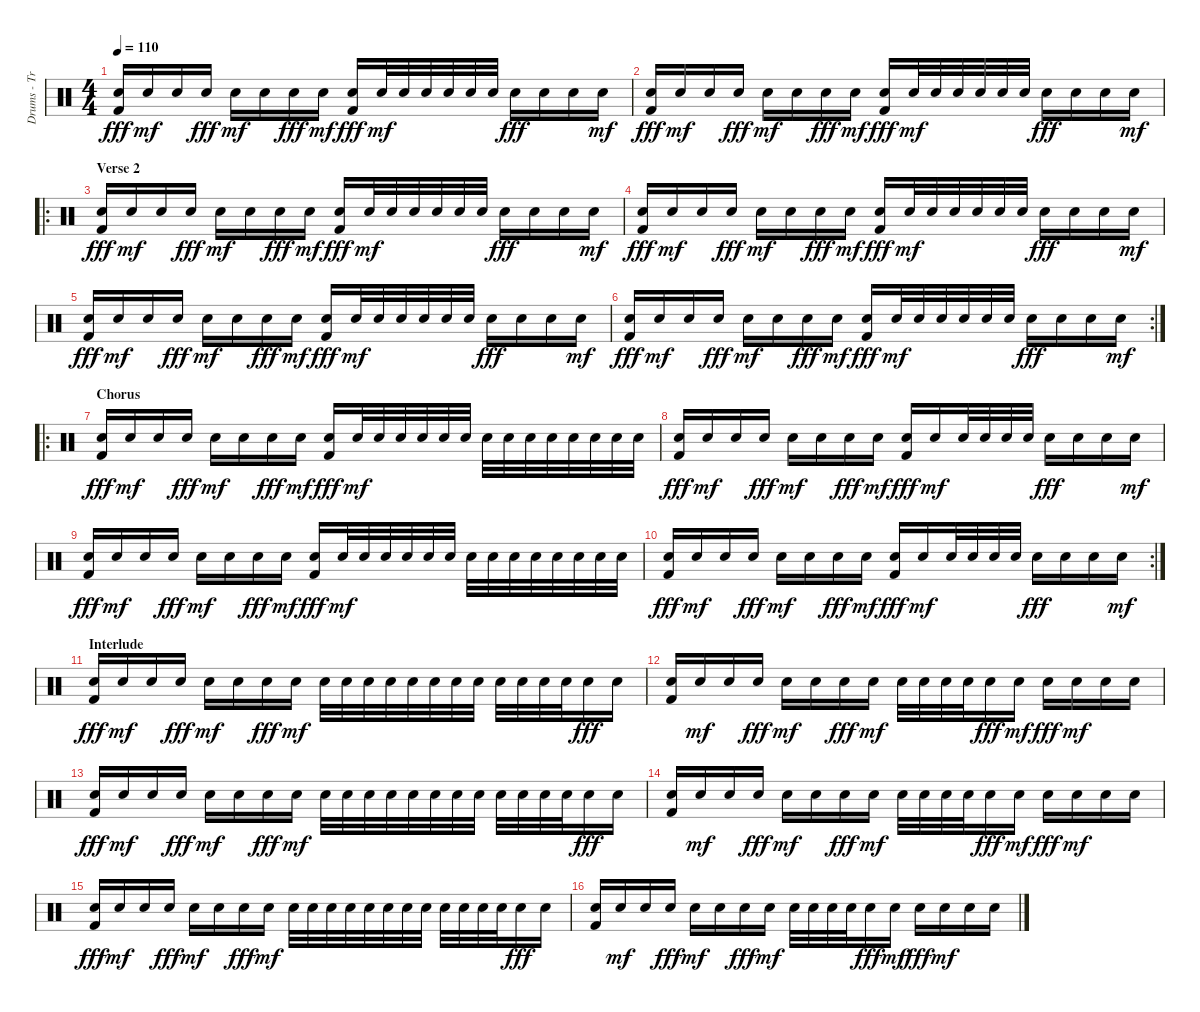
\track ("Drums - Travis" "Drums - Tr") {instrument percussion}
\staff {score}
\articulation defaults
\ts (4 4)
\tempo 110
\clef neutral
\ks c
("Electric Snare (hit)" "Kick (hit) 2").16{dy fff} "Electric Snare (hit)".16{dy mf} "Electric Snare (hit)".16 "Electric Snare (hit)".16{dy fff} "Electric Snare (hit)".16{dy mf} "Electric Snare (hit)".16 "Electric Snare (hit)".16{dy fff} "Electric Snare (hit)".16{dy mf} ("Electric Snare (hit)" "Kick (hit) 2").16{dy fff} "Electric Snare (hit)".32{dy mf} "Electric Snare (hit)".32 "Electric Snare (hit)".32 "Electric Snare (hit)".32 "Electric Snare (hit)".32 "Electric Snare (hit)".32 "Electric Snare (hit)".16{dy fff} "Electric Snare (hit)".16 "Electric Snare (hit)".16 "Electric Snare (hit)".16{dy mf} |
("Electric Snare (hit)" "Kick (hit) 2").16{dy fff} "Electric Snare (hit)".16{dy mf} "Electric Snare (hit)".16 "Electric Snare (hit)".16{dy fff} "Electric Snare (hit)".16{dy mf} "Electric Snare (hit)".16 "Electric Snare (hit)".16{dy fff} "Electric Snare (hit)".16{dy mf} ("Electric Snare (hit)" "Kick (hit) 2").16{dy fff} "Electric Snare (hit)".32{dy mf} "Electric Snare (hit)".32 "Electric Snare (hit)".32 "Electric Snare (hit)".32 "Electric Snare (hit)".32 "Electric Snare (hit)".32 "Electric Snare (hit)".16{dy fff} "Electric Snare (hit)".16 "Electric Snare (hit)".16 "Electric Snare (hit)".16{dy mf} |
\ro
\section ("" "Verse 2")
("Electric Snare (hit)" "Kick (hit) 2").16{dy fff} "Electric Snare (hit)".16{dy mf} "Electric Snare (hit)".16 "Electric Snare (hit)".16{dy fff} "Electric Snare (hit)".16{dy mf} "Electric Snare (hit)".16 "Electric Snare (hit)".16{dy fff} "Electric Snare (hit)".16{dy mf} ("Electric Snare (hit)" "Kick (hit) 2").16{dy fff} "Electric Snare (hit)".32{dy mf} "Electric Snare (hit)".32 "Electric Snare (hit)".32 "Electric Snare (hit)".32 "Electric Snare (hit)".32 "Electric Snare (hit)".32 "Electric Snare (hit)".16{dy fff} "Electric Snare (hit)".16 "Electric Snare (hit)".16 "Electric Snare (hit)".16{dy mf} |
("Electric Snare (hit)" "Kick (hit) 2").16{dy fff} "Electric Snare (hit)".16{dy mf} "Electric Snare (hit)".16 "Electric Snare (hit)".16{dy fff} "Electric Snare (hit)".16{dy mf} "Electric Snare (hit)".16 "Electric Snare (hit)".16{dy fff} "Electric Snare (hit)".16{dy mf} ("Electric Snare (hit)" "Kick (hit) 2").16{dy fff} "Electric Snare (hit)".32{dy mf} "Electric Snare (hit)".32 "Electric Snare (hit)".32 "Electric Snare (hit)".32 "Electric Snare (hit)".32 "Electric Snare (hit)".32 "Electric Snare (hit)".16{dy fff} "Electric Snare (hit)".16 "Electric Snare (hit)".16 "Electric Snare (hit)".16{dy mf} |
("Electric Snare (hit)" "Kick (hit) 2").16{dy fff} "Electric Snare (hit)".16{dy mf} "Electric Snare (hit)".16 "Electric Snare (hit)".16{dy fff} "Electric Snare (hit)".16{dy mf} "Electric Snare (hit)".16 "Electric Snare (hit)".16{dy fff} "Electric Snare (hit)".16{dy mf} ("Electric Snare (hit)" "Kick (hit) 2").16{dy fff} "Electric Snare (hit)".32{dy mf} "Electric Snare (hit)".32 "Electric Snare (hit)".32 "Electric Snare (hit)".32 "Electric Snare (hit)".32 "Electric Snare (hit)".32 "Electric Snare (hit)".16{dy fff} "Electric Snare (hit)".16 "Electric Snare (hit)".16 "Electric Snare (hit)".16{dy mf} |
\rc 2
("Electric Snare (hit)" "Kick (hit) 2").16{dy fff} "Electric Snare (hit)".16{dy mf} "Electric Snare (hit)".16 "Electric Snare (hit)".16{dy fff} "Electric Snare (hit)".16{dy mf} "Electric Snare (hit)".16 "Electric Snare (hit)".16{dy fff} "Electric Snare (hit)".16{dy mf} ("Electric Snare (hit)" "Kick (hit) 2").16{dy fff} "Electric Snare (hit)".32{dy mf} "Electric Snare (hit)".32 "Electric Snare (hit)".32 "Electric Snare (hit)".32 "Electric Snare (hit)".32 "Electric Snare (hit)".32 "Electric Snare (hit)".16{dy fff} "Electric Snare (hit)".16 "Electric Snare (hit)".16 "Electric Snare (hit)".16{dy mf} |
\ro
\section ("" "Chorus")
("Electric Snare (hit)" "Kick (hit) 2").16{dy fff} "Electric Snare (hit)".16{dy mf} "Electric Snare (hit)".16 "Electric Snare (hit)".16{dy fff} "Electric Snare (hit)".16{dy mf} "Electric Snare (hit)".16 "Electric Snare (hit)".16{dy fff} "Electric Snare (hit)".16{dy mf} ("Electric Snare (hit)" "Kick (hit) 2").16{dy fff} "Electric Snare (hit)".32{dy mf} "Electric Snare (hit)".32 "Electric Snare (hit)".32 "Electric Snare (hit)".32 "Electric Snare (hit)".32 "Electric Snare (hit)".32 "Electric Snare (hit)".32 "Electric Snare (hit)".32 "Electric Snare (hit)".32 "Electric Snare (hit)".32 "Electric Snare (hit)".32 "Electric Snare (hit)".32 "Electric Snare (hit)".32 "Electric Snare (hit)".32 |
("Electric Snare (hit)" "Kick (hit) 2").16{dy fff} "Electric Snare (hit)".16{dy mf} "Electric Snare (hit)".16 "Electric Snare (hit)".16{dy fff} "Electric Snare (hit)".16{dy mf} "Electric Snare (hit)".16 "Electric Snare (hit)".16{dy fff} "Electric Snare (hit)".16{dy mf} ("Electric Snare (hit)" "Kick (hit) 2").16{dy fff} "Electric Snare (hit)".16{dy mf} "Electric Snare (hit)".32 "Electric Snare (hit)".32 "Electric Snare (hit)".32 "Electric Snare (hit)".32 "Electric Snare (hit)".16{dy fff} "Electric Snare (hit)".16 "Electric Snare (hit)".16 "Electric Snare (hit)".16{dy mf} |
("Electric Snare (hit)" "Kick (hit) 2").16{dy fff} "Electric Snare (hit)".16{dy mf} "Electric Snare (hit)".16 "Electric Snare (hit)".16{dy fff} "Electric Snare (hit)".16{dy mf} "Electric Snare (hit)".16 "Electric Snare (hit)".16{dy fff} "Electric Snare (hit)".16{dy mf} ("Electric Snare (hit)" "Kick (hit) 2").16{dy fff} "Electric Snare (hit)".32{dy mf} "Electric Snare (hit)".32 "Electric Snare (hit)".32 "Electric Snare (hit)".32 "Electric Snare (hit)".32 "Electric Snare (hit)".32 "Electric Snare (hit)".32 "Electric Snare (hit)".32 "Electric Snare (hit)".32 "Electric Snare (hit)".32 "Electric Snare (hit)".32 "Electric Snare (hit)".32 "Electric Snare (hit)".32 "Electric Snare (hit)".32 |
\rc 2
("Electric Snare (hit)" "Kick (hit) 2").16{dy fff} "Electric Snare (hit)".16{dy mf} "Electric Snare (hit)".16 "Electric Snare (hit)".16{dy fff} "Electric Snare (hit)".16{dy mf} "Electric Snare (hit)".16 "Electric Snare (hit)".16{dy fff} "Electric Snare (hit)".16{dy mf} ("Electric Snare (hit)" "Kick (hit) 2").16{dy fff} "Electric Snare (hit)".16{dy mf} "Electric Snare (hit)".32 "Electric Snare (hit)".32 "Electric Snare (hit)".32 "Electric Snare (hit)".32 "Electric Snare (hit)".16{dy fff} "Electric Snare (hit)".16 "Electric Snare (hit)".16 "Electric Snare (hit)".16{dy mf} |
\section ("" "Interlude")
("Electric Snare (hit)" "Kick (hit) 2").16{dy fff} "Electric Snare (hit)".16{dy mf} "Electric Snare (hit)".16 "Electric Snare (hit)".16{dy fff} "Electric Snare (hit)".16{dy mf} "Electric Snare (hit)".16 "Electric Snare (hit)".16{dy fff} "Electric Snare (hit)".16{dy mf} "Electric Snare (hit)".32 "Electric Snare (hit)".32 "Electric Snare (hit)".32 "Electric Snare (hit)".32 "Electric Snare (hit)".32 "Electric Snare (hit)".32 "Electric Snare (hit)".32 "Electric Snare (hit)".32 "Electric Snare (hit)".32 "Electric Snare (hit)".32 "Electric Snare (hit)".32 "Electric Snare (hit)".32 "Electric Snare (hit)".16{dy fff} "Electric Snare (hit)".16 |
("Electric Snare (hit)" "Kick (hit) 2").16 "Electric Snare (hit)".16{dy mf} "Electric Snare (hit)".16 "Electric Snare (hit)".16{dy fff} "Electric Snare (hit)".16{dy mf} "Electric Snare (hit)".16 "Electric Snare (hit)".16{dy fff} "Electric Snare (hit)".16{dy mf} "Electric Snare (hit)".32 "Electric Snare (hit)".32 "Electric Snare (hit)".32 "Electric Snare (hit)".32 "Electric Snare (hit)".16{dy fff} "Electric Snare (hit)".16{dy mf} "Electric Snare (hit)".16{dy fff} "Electric Snare (hit)".16{dy mf} "Electric Snare (hit)".16 "Electric Snare (hit)".16 |
("Electric Snare (hit)" "Kick (hit) 2").16{dy fff} "Electric Snare (hit)".16{dy mf} "Electric Snare (hit)".16 "Electric Snare (hit)".16{dy fff} "Electric Snare (hit)".16{dy mf} "Electric Snare (hit)".16 "Electric Snare (hit)".16{dy fff} "Electric Snare (hit)".16{dy mf} "Electric Snare (hit)".32 "Electric Snare (hit)".32 "Electric Snare (hit)".32 "Electric Snare (hit)".32 "Electric Snare (hit)".32 "Electric Snare (hit)".32 "Electric Snare (hit)".32 "Electric Snare (hit)".32 "Electric Snare (hit)".32 "Electric Snare (hit)".32 "Electric Snare (hit)".32 "Electric Snare (hit)".32 "Electric Snare (hit)".16{dy fff} "Electric Snare (hit)".16 |
("Electric Snare (hit)" "Kick (hit) 2").16 "Electric Snare (hit)".16{dy mf} "Electric Snare (hit)".16 "Electric Snare (hit)".16{dy fff} "Electric Snare (hit)".16{dy mf} "Electric Snare (hit)".16 "Electric Snare (hit)".16{dy fff} "Electric Snare (hit)".16{dy mf} "Electric Snare (hit)".32 "Electric Snare (hit)".32 "Electric Snare (hit)".32 "Electric Snare (hit)".32 "Electric Snare (hit)".16{dy fff} "Electric Snare (hit)".16{dy mf} "Electric Snare (hit)".16{dy fff} "Electric Snare (hit)".16{dy mf} "Electric Snare (hit)".16 "Electric Snare (hit)".16 |
("Electric Snare (hit)" "Kick (hit) 2").16{dy fff} "Electric Snare (hit)".16{dy mf} "Electric Snare (hit)".16 "Electric Snare (hit)".16{dy fff} "Electric Snare (hit)".16{dy mf} "Electric Snare (hit)".16 "Electric Snare (hit)".16{dy fff} "Electric Snare (hit)".16{dy mf} "Electric Snare (hit)".32 "Electric Snare (hit)".32 "Electric Snare (hit)".32 "Electric Snare (hit)".32 "Electric Snare (hit)".32 "Electric Snare (hit)".32 "Electric Snare (hit)".32 "Electric Snare (hit)".32 "Electric Snare (hit)".32 "Electric Snare (hit)".32 "Electric Snare (hit)".32 "Electric Snare (hit)".32 "Electric Snare (hit)".16{dy fff} "Electric Snare (hit)".16 |
("Electric Snare (hit)" "Kick (hit) 2").16 "Electric Snare (hit)".16{dy mf} "Electric Snare (hit)".16 "Electric Snare (hit)".16{dy fff} "Electric Snare (hit)".16{dy mf} "Electric Snare (hit)".16 "Electric Snare (hit)".16{dy fff} "Electric Snare (hit)".16{dy mf} "Electric Snare (hit)".32 "Electric Snare (hit)".32 "Electric Snare (hit)".32 "Electric Snare (hit)".32 "Electric Snare (hit)".16{dy fff} "Electric Snare (hit)".16{dy mf} "Electric Snare (hit)".16{dy fff} "Electric Snare (hit)".16{dy mf} "Electric Snare (hit)".16 "Electric Snare (hit)".16
